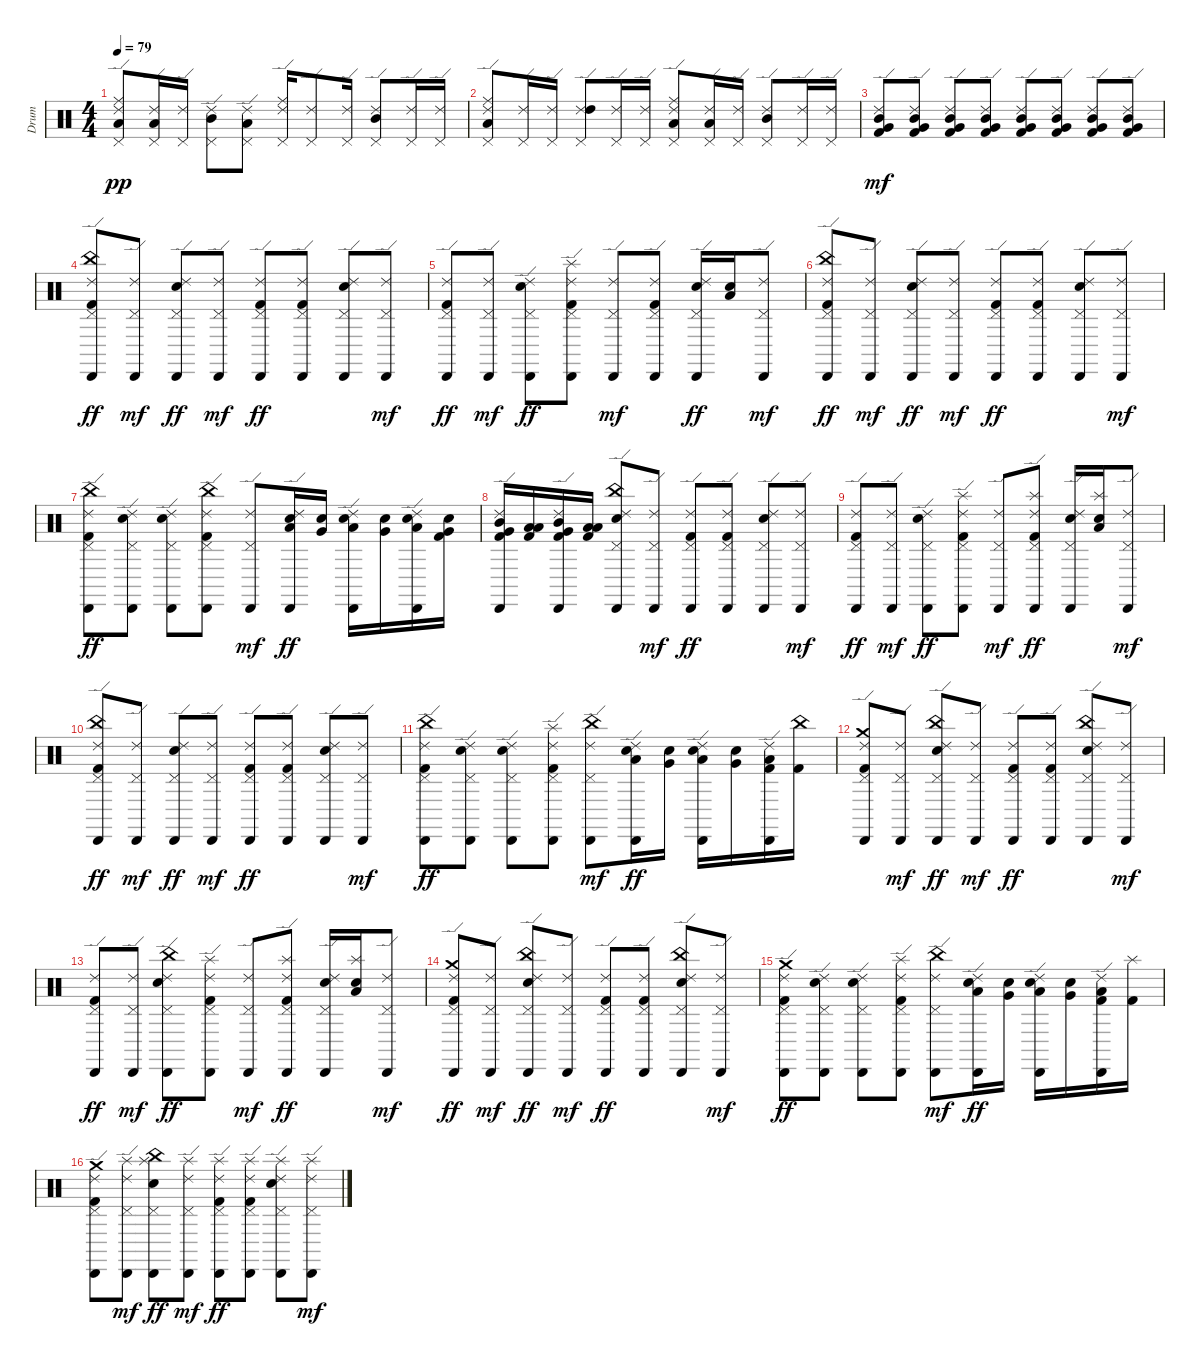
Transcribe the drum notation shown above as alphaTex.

\track ("Drum" "Drum") {instrument percussion}
\staff {score}
\articulation defaults
\ts (4 4)
\tempo 79
\clef neutral
\ks c
("Ride (edge) 2" "Pedal Hi-Hat (hit)" "Ride (middle)" "Low Tom (hit)").8{dy pp} ("Ride (edge) 2" "Pedal Hi-Hat (hit)" "Low Tom (hit)").16 ("Ride (edge) 2" "Pedal Hi-Hat (hit)").16 ("Ride (edge) 2" "Pedal Hi-Hat (hit)" "Mid Tom (hit)").8 ("Ride (edge) 2" "Pedal Hi-Hat (hit)" "Low Tom (hit)").8 ("Ride (edge) 2" "Pedal Hi-Hat (hit)" "Ride (middle)").16 ("Ride (edge) 2" "Pedal Hi-Hat (hit)").8 ("Ride (edge) 2" "Pedal Hi-Hat (hit)").16 ("Ride (edge) 2" "Pedal Hi-Hat (hit)" "Mid Tom (hit)").8 ("Ride (edge) 2" "Pedal Hi-Hat (hit)").16 ("Ride (edge) 2" "Pedal Hi-Hat (hit)").16 |
("Ride (edge) 2" "Pedal Hi-Hat (hit)" "Ride (middle)" "Low Tom (hit)").8 ("Ride (edge) 2" "Pedal Hi-Hat (hit)").16 ("Ride (edge) 2" "Pedal Hi-Hat (hit)").16 ("Ride (edge) 2" "Pedal Hi-Hat (hit)" "High Tom (hit)").8 ("Ride (edge) 2" "Pedal Hi-Hat (hit)").16 ("Ride (edge) 2" "Pedal Hi-Hat (hit)").16 ("Ride (edge) 2" "Pedal Hi-Hat (hit)" "Ride (middle)" "Low Tom (hit)").8 ("Ride (edge) 2" "Pedal Hi-Hat (hit)" "Low Tom (hit)").16 ("Ride (edge) 2" "Pedal Hi-Hat (hit)").16 ("Ride (edge) 2" "Pedal Hi-Hat (hit)" "Mid Tom (hit)").8 ("Ride (edge) 2" "Pedal Hi-Hat (hit)").16 ("Ride (edge) 2" "Pedal Hi-Hat (hit)").16 |
("Ride (edge) 2" "Mid Tom (hit)" "Very Low Tom (hit)" "Kick (hit) 2").8{dy mf} ("Ride (edge) 2" "Mid Tom (hit)" "Very Low Tom (hit)" "Kick (hit) 2").8 ("Ride (edge) 2" "Mid Tom (hit)" "Very Low Tom (hit)" "Kick (hit) 2").8 ("Ride (edge) 2" "Mid Tom (hit)" "Very Low Tom (hit)" "Kick (hit) 2").8 ("Ride (edge) 2" "Mid Tom (hit)" "Very Low Tom (hit)" "Kick (hit) 2").8 ("Ride (edge) 2" "Mid Tom (hit)" "Very Low Tom (hit)" "Kick (hit) 2").8 ("Ride (edge) 2" "Mid Tom (hit)" "Very Low Tom (hit)" "Kick (hit) 2").8 ("Ride (edge) 2" "Mid Tom (hit)" "Very Low Tom (hit)" "Kick (hit) 2").8 |
("Ride (edge) 2" "Cabasa (hit)" "Pedal Hi-Hat (hit)" "China (hit)" "Kick (hit) 2").8{dy ff} ("Ride (edge) 2" "Cabasa (hit)" "Pedal Hi-Hat (hit)").8{dy mf} ("Ride (edge) 2" "Cabasa (hit)" "Pedal Hi-Hat (hit)" "Snare (hit) 2").8{dy ff} ("Ride (edge) 2" "Cabasa (hit)" "Pedal Hi-Hat (hit)").8{dy mf} ("Ride (edge) 2" "Cabasa (hit)" "Pedal Hi-Hat (hit)" "Kick (hit) 2").8{dy ff} ("Ride (edge) 2" "Cabasa (hit)" "Pedal Hi-Hat (hit)" "Kick (hit) 2").8 ("Ride (edge) 2" "Cabasa (hit)" "Pedal Hi-Hat (hit)" "Snare (hit) 2").8 ("Ride (edge) 2" "Cabasa (hit)" "Pedal Hi-Hat (hit)").8{dy mf} |
("Ride (edge) 2" "Cabasa (hit)" "Pedal Hi-Hat (hit)" "Kick (hit) 2").8{dy ff} ("Ride (edge) 2" "Cabasa (hit)" "Pedal Hi-Hat (hit)").8{dy mf} ("Ride (edge) 2" "Cabasa (hit)" "Pedal Hi-Hat (hit)" "Snare (hit) 2").8{dy ff} ("Ride (edge) 2" "Cabasa (hit)" "Pedal Hi-Hat (hit)" "Splash (hit)" "Kick (hit) 2").8 ("Ride (edge) 2" "Cabasa (hit)" "Pedal Hi-Hat (hit)").8{dy mf} ("Ride (edge) 2" "Cabasa (hit)" "Pedal Hi-Hat (hit)" "Kick (hit) 2").8 ("Ride (edge) 2" "Cabasa (hit)" "Pedal Hi-Hat (hit)" "Snare (hit) 2").16{dy ff} ("Low Tom (hit)" "Snare (hit) 2").16 ("Ride (edge) 2" "Cabasa (hit)" "Pedal Hi-Hat (hit)").8{dy mf} |
("Ride (edge) 2" "Cabasa (hit)" "Pedal Hi-Hat (hit)" "China (hit)" "Kick (hit) 2").8{dy ff} ("Ride (edge) 2" "Cabasa (hit)" "Pedal Hi-Hat (hit)").8{dy mf} ("Ride (edge) 2" "Cabasa (hit)" "Pedal Hi-Hat (hit)" "Snare (hit) 2").8{dy ff} ("Ride (edge) 2" "Cabasa (hit)" "Pedal Hi-Hat (hit)").8{dy mf} ("Ride (edge) 2" "Cabasa (hit)" "Pedal Hi-Hat (hit)" "Kick (hit) 2").8{dy ff} ("Ride (edge) 2" "Cabasa (hit)" "Pedal Hi-Hat (hit)" "Kick (hit) 2").8 ("Ride (edge) 2" "Cabasa (hit)" "Pedal Hi-Hat (hit)" "Snare (hit) 2").8 ("Ride (edge) 2" "Cabasa (hit)" "Pedal Hi-Hat (hit)").8{dy mf} |
("Ride (edge) 2" "Cabasa (hit)" "Pedal Hi-Hat (hit)" "China (hit)" "Kick (hit) 2").8{dy ff} ("Ride (edge) 2" "Cabasa (hit)" "Pedal Hi-Hat (hit)" "Snare (hit) 2").8 ("Ride (edge) 2" "Cabasa (hit)" "Pedal Hi-Hat (hit)" "Snare (hit) 2").8 ("Ride (edge) 2" "Cabasa (hit)" "Pedal Hi-Hat (hit)" "China (hit)" "Kick (hit) 2").8 ("Ride (edge) 2" "Cabasa (hit)" "Pedal Hi-Hat (hit)").8{dy mf} ("Ride (edge) 2" "Cabasa (hit)" "Low Tom (hit)" "Snare (hit) 2").16{dy ff} ("Very Low Tom (hit)" "Snare (hit) 2").16 ("Ride (edge) 2" "Cabasa (hit)" "Low Tom (hit)" "Snare (hit) 2").16 ("Very Low Tom (hit)" "Snare (hit) 2").16 ("Ride (edge) 2" "Cabasa (hit)" "Low Tom (hit)" "Snare (hit) 2").16 ("Very Low Tom (hit)" "Snare (hit) 2" "Kick (hit) 2").16 |
("Ride (edge) 2" "Cabasa (hit)" "Mid Tom (hit)" "Very Low Tom (hit)" "Kick (hit) 2").16 ("Low Tom (hit)" "Low Floor Tom (hit)" "Kick (hit) 2").16 ("Ride (edge) 2" "Cabasa (hit)" "Mid Tom (hit)" "Very Low Tom (hit)" "Kick (hit) 2").16 ("Low Tom (hit)" "Low Floor Tom (hit)" "Kick (hit) 2").16 ("Ride (edge) 2" "Cabasa (hit)" "Pedal Hi-Hat (hit)" "China (hit)" "Snare (hit) 2").8 ("Ride (edge) 2" "Cabasa (hit)" "Pedal Hi-Hat (hit)").8{dy mf} ("Ride (edge) 2" "Cabasa (hit)" "Pedal Hi-Hat (hit)" "Kick (hit) 2").8{dy ff} ("Ride (edge) 2" "Cabasa (hit)" "Pedal Hi-Hat (hit)" "Kick (hit) 2").8 ("Ride (edge) 2" "Cabasa (hit)" "Pedal Hi-Hat (hit)" "Snare (hit) 2").8 ("Ride (edge) 2" "Cabasa (hit)" "Pedal Hi-Hat (hit)").8{dy mf} |
("Ride (edge) 2" "Cabasa (hit)" "Pedal Hi-Hat (hit)" "Kick (hit) 2").8{dy ff} ("Ride (edge) 2" "Cabasa (hit)" "Pedal Hi-Hat (hit)").8{dy mf} ("Ride (edge) 2" "Cabasa (hit)" "Pedal Hi-Hat (hit)" "Snare (hit) 2").8{dy ff} ("Ride (edge) 2" "Cabasa (hit)" "Pedal Hi-Hat (hit)" "Splash (hit)" "Kick (hit) 2").8 ("Ride (edge) 2" "Cabasa (hit)" "Pedal Hi-Hat (hit)").8{dy mf} ("Ride (edge) 2" "Cabasa (hit)" "Pedal Hi-Hat (hit)" "Splash (hit)" "Kick (hit) 2").8{dy ff} ("Ride (edge) 2" "Cabasa (hit)" "Pedal Hi-Hat (hit)" "Snare (hit) 2").16 ("Splash (hit)" "Low Tom (hit)" "Snare (hit) 2").16 ("Ride (edge) 2" "Cabasa (hit)" "Pedal Hi-Hat (hit)").8{dy mf} |
("Ride (edge) 2" "Cabasa (hit)" "Pedal Hi-Hat (hit)" "China (hit)" "Kick (hit) 2").8{dy ff} ("Ride (edge) 2" "Cabasa (hit)" "Pedal Hi-Hat (hit)").8{dy mf} ("Ride (edge) 2" "Cabasa (hit)" "Pedal Hi-Hat (hit)" "Snare (hit) 2").8{dy ff} ("Ride (edge) 2" "Cabasa (hit)" "Pedal Hi-Hat (hit)").8{dy mf} ("Ride (edge) 2" "Cabasa (hit)" "Pedal Hi-Hat (hit)" "Kick (hit) 2").8{dy ff} ("Ride (edge) 2" "Cabasa (hit)" "Pedal Hi-Hat (hit)" "Kick (hit) 2").8 ("Ride (edge) 2" "Cabasa (hit)" "Pedal Hi-Hat (hit)" "Snare (hit) 2").8 ("Ride (edge) 2" "Cabasa (hit)" "Pedal Hi-Hat (hit)").8{dy mf} |
("Ride (edge) 2" "Cabasa (hit)" "Pedal Hi-Hat (hit)" "China (hit)" "Kick (hit) 2").8{dy ff} ("Ride (edge) 2" "Cabasa (hit)" "Pedal Hi-Hat (hit)" "Snare (hit) 2").8 ("Ride (edge) 2" "Cabasa (hit)" "Pedal Hi-Hat (hit)" "Snare (hit) 2").8 ("Ride (edge) 2" "Cabasa (hit)" "Pedal Hi-Hat (hit)" "Splash (hit)" "Kick (hit) 2").8 ("Ride (edge) 2" "Cabasa (hit)" "Pedal Hi-Hat (hit)" "China (hit)").8{dy mf} ("Ride (edge) 2" "Cabasa (hit)" "Low Tom (hit)" "Snare (hit) 2").16{dy ff} ("Very Low Tom (hit)" "Snare (hit) 2").16 ("Ride (edge) 2" "Cabasa (hit)" "Low Tom (hit)" "Snare (hit) 2").16 ("Very Low Tom (hit)" "Snare (hit) 2").16 ("Ride (edge) 2" "Cabasa (hit)" "Low Floor Tom (hit)" "Kick (hit) 2").16 ("China (hit)" "Kick (hit) 2").16 |
("Ride (edge) 2" "Cabasa (hit)" "Pedal Hi-Hat (hit)" "Crash medium (hit)" "Kick (hit) 2").8 ("Ride (edge) 2" "Cabasa (hit)" "Pedal Hi-Hat (hit)").8{dy mf} ("Ride (edge) 2" "Cabasa (hit)" "Pedal Hi-Hat (hit)" "China (hit)" "Snare (hit) 2").8{dy ff} ("Ride (edge) 2" "Cabasa (hit)" "Pedal Hi-Hat (hit)").8{dy mf} ("Ride (edge) 2" "Cabasa (hit)" "Pedal Hi-Hat (hit)" "Kick (hit) 2").8{dy ff} ("Ride (edge) 2" "Cabasa (hit)" "Pedal Hi-Hat (hit)" "Kick (hit) 2").8 ("Ride (edge) 2" "Cabasa (hit)" "Pedal Hi-Hat (hit)" "China (hit)" "Snare (hit) 2").8 ("Ride (edge) 2" "Cabasa (hit)" "Pedal Hi-Hat (hit)").8{dy mf} |
("Ride (edge) 2" "Cabasa (hit)" "Pedal Hi-Hat (hit)" "Kick (hit) 2").8{dy ff} ("Ride (edge) 2" "Cabasa (hit)" "Pedal Hi-Hat (hit)").8{dy mf} ("Ride (edge) 2" "Cabasa (hit)" "Pedal Hi-Hat (hit)" "China (hit)" "Snare (hit) 2").8{dy ff} ("Ride (edge) 2" "Cabasa (hit)" "Pedal Hi-Hat (hit)" "Splash (hit)" "Kick (hit) 2").8 ("Ride (edge) 2" "Cabasa (hit)" "Pedal Hi-Hat (hit)").8{dy mf} ("Ride (edge) 2" "Cabasa (hit)" "Pedal Hi-Hat (hit)" "Splash (hit)" "Kick (hit) 2").8{dy ff} ("Ride (edge) 2" "Cabasa (hit)" "Pedal Hi-Hat (hit)" "Snare (hit) 2").16 ("Splash (hit)" "Low Tom (hit)" "Snare (hit) 2").16 ("Ride (edge) 2" "Cabasa (hit)" "Pedal Hi-Hat (hit)").8{dy mf} |
("Crash medium (hit)" "Cabasa (hit)" "Pedal Hi-Hat (hit)" "Ride (edge) 2" "Kick (hit) 2").8{dy ff} ("Ride (edge) 2" "Cabasa (hit)" "Pedal Hi-Hat (hit)").8{dy mf} ("Ride (edge) 2" "Cabasa (hit)" "Pedal Hi-Hat (hit)" "China (hit)" "Snare (hit) 2").8{dy ff} ("Ride (edge) 2" "Cabasa (hit)" "Pedal Hi-Hat (hit)").8{dy mf} ("Ride (edge) 2" "Cabasa (hit)" "Pedal Hi-Hat (hit)" "Kick (hit) 2").8{dy ff} ("Ride (edge) 2" "Cabasa (hit)" "Pedal Hi-Hat (hit)" "Kick (hit) 2").8 ("Ride (edge) 2" "Cabasa (hit)" "Pedal Hi-Hat (hit)" "China (hit)" "Snare (hit) 2").8 ("Ride (edge) 2" "Cabasa (hit)" "Pedal Hi-Hat (hit)").8{dy mf} |
("Ride (edge) 2" "Cabasa (hit)" "Pedal Hi-Hat (hit)" "Crash medium (hit)" "Kick (hit) 2").8{dy ff} ("Ride (edge) 2" "Cabasa (hit)" "Pedal Hi-Hat (hit)" "Snare (hit) 2").8 ("Ride (edge) 2" "Cabasa (hit)" "Pedal Hi-Hat (hit)" "Snare (hit) 2").8 ("Ride (edge) 2" "Cabasa (hit)" "Pedal Hi-Hat (hit)" "Splash (hit)" "Kick (hit) 2").8 ("Ride (edge) 2" "Cabasa (hit)" "Pedal Hi-Hat (hit)" "China (hit)").8{dy mf} ("Ride (edge) 2" "Cabasa (hit)" "Low Tom (hit)" "Snare (hit) 2").16{dy ff} ("Very Low Tom (hit)" "Snare (hit) 2").16 ("Ride (edge) 2" "Cabasa (hit)" "Low Tom (hit)" "Snare (hit) 2").16 ("Very Low Tom (hit)" "Snare (hit) 2").16 ("Ride (edge) 2" "Cabasa (hit)" "Low Floor Tom (hit)" "Kick (hit) 2").16 ("Splash (hit)" "Kick (hit) 2").16 |
("Ride (edge) 2" "Cabasa (hit)" "Pedal Hi-Hat (hit)" "Crash medium (hit)" "Kick (hit) 2").8 ("Ride (edge) 2" "Cabasa (hit)" "Pedal Hi-Hat (hit)" "Splash (hit)").8{dy mf} ("Splash (hit)" "Cabasa (hit)" "Pedal Hi-Hat (hit)" "China (hit)" "Snare (hit) 2").8{dy ff} ("Ride (edge) 2" "Cabasa (hit)" "Pedal Hi-Hat (hit)" "Splash (hit)").8{dy mf} ("Ride (edge) 2" "Cabasa (hit)" "Pedal Hi-Hat (hit)" "Splash (hit)" "Kick (hit) 2").8{dy ff} ("Ride (edge) 2" "Cabasa (hit)" "Pedal Hi-Hat (hit)" "Splash (hit)" "Kick (hit) 2").8 ("Ride (edge) 2" "Cabasa (hit)" "Pedal Hi-Hat (hit)" "Splash (hit)" "Snare (hit) 2").8 ("Ride (edge) 2" "Cabasa (hit)" "Pedal Hi-Hat (hit)" "Splash (hit)").8{dy mf}
